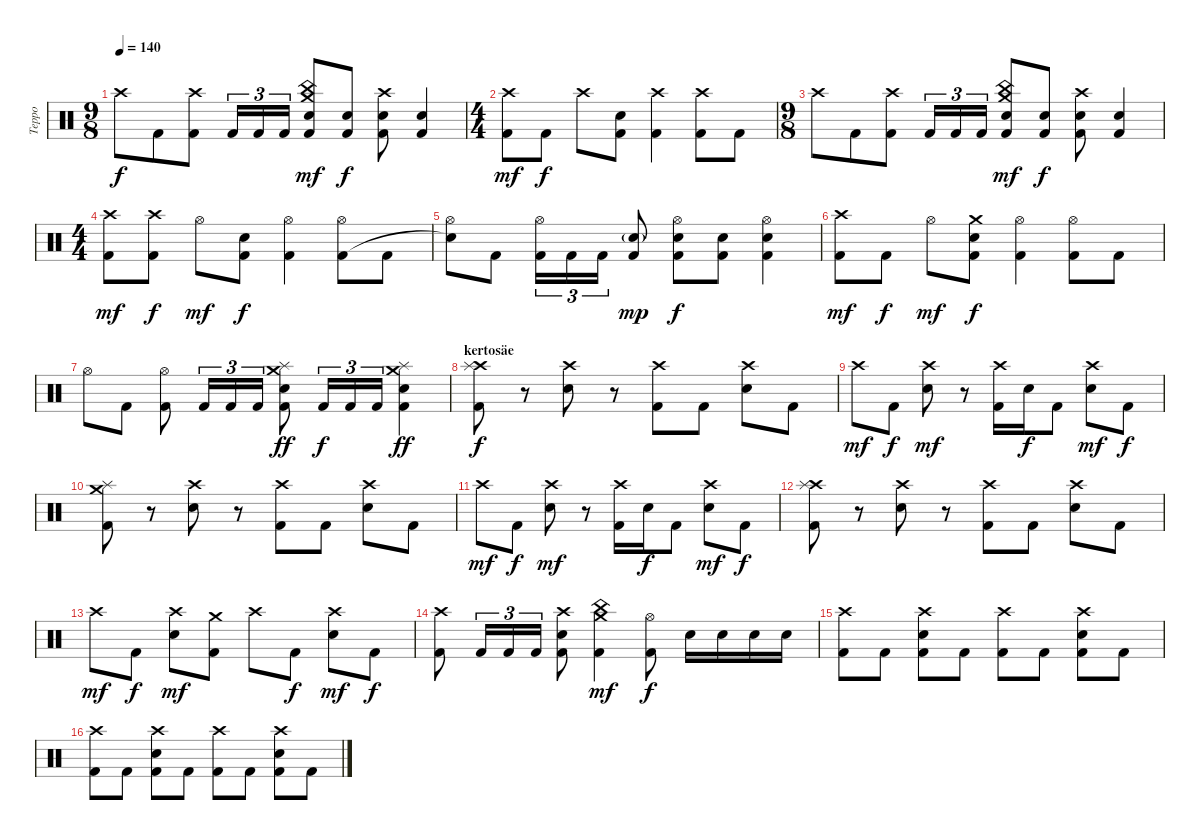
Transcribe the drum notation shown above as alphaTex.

\track ("Teppo" "Teppo") {instrument percussion}
\staff {score}
\articulation defaults
\ts (9 8)
\tempo 140
\clef neutral
\ks c "Crash high (hit)".8{dy f} "Kick (hit) 2".8
("Crash high (hit)" "Kick (hit) 2").8 "Kick (hit) 2".16{tu (3 2)} "Kick (hit) 2".16{tu (3 2)} "Kick (hit) 2".16{tu (3 2)} ("Crash medium (hit)" "China (hit)" "Electric Snare (hit)" "Kick (hit) 2").8{dy mf} ("Electric Snare (hit)" "Kick (hit) 2").8{dy f} ("Crash high (hit)" "Electric Snare (hit)" "Kick (hit) 2").8 ("Electric Snare (hit)" "Kick (hit) 2").4 |
\ts (4 4)
("Crash high (hit)" "Kick (hit) 2").8{dy mf} "Kick (hit) 2".8{dy f} "Crash high (hit)".8 ("Electric Snare (hit)" "Kick (hit) 2").8 ("Crash high (hit)" "Kick (hit) 2").4 ("Crash high (hit)" "Kick (hit) 2").8 "Kick (hit) 2".8 |
\ts (9 8)
"Crash high (hit)".8 "Kick (hit) 2".8 ("Crash high (hit)" "Kick (hit) 2").8 "Kick (hit) 2".16{tu (3 2)} "Kick (hit) 2".16{tu (3 2)} "Kick (hit) 2".16{tu (3 2)} ("Crash medium (hit)" "China (hit)" "Electric Snare (hit)" "Kick (hit) 2").8{dy mf} ("Electric Snare (hit)" "Kick (hit) 2").8{dy f} ("Crash high (hit)" "Electric Snare (hit)" "Kick (hit) 2").8 ("Electric Snare (hit)" "Kick (hit) 2").4 |
\ts (4 4)
("Crash high (hit)" "Kick (hit) 2").8{dy mf} ("Crash high (hit)" "Kick (hit) 2").8{dy f} "Hi-Hat (open)".8{dy mf} ("Electric Snare (hit)" "Kick (hit) 2").8{dy f} ("Hi-Hat (open)" "Kick (hit) 2").4 ("Hi-Hat (open)" "Kick (hit) 2").8 "Kick (hit) 2".8 |
("Hi-Hat (open)" "Snare (hit)"{t}).8 "Kick (hit) 2".8 ("Hi-Hat (open)" "Kick (hit) 2").16{tu (3 2)} "Kick (hit) 2".16{tu (3 2)} "Kick (hit) 2".16{tu (3 2)} ("Electric Snare (hit)"{g} "Kick (hit) 2").8{dy mp} ("Hi-Hat (open)" "Electric Snare (hit)" "Kick (hit) 2").8{dy f} ("Electric Snare (hit)" "Kick (hit) 2").8 ("Hi-Hat (open)" "Electric Snare (hit)" "Kick (hit) 2").4 |
("Crash high (hit)" "Kick (hit) 2").8{dy mf} "Kick (hit) 2".8{dy f} "Hi-Hat (open)".8{dy mf} ("Crash medium (hit)" "Electric Snare (hit)" "Kick (hit) 2").8{dy f} ("Hi-Hat (open)" "Kick (hit) 2").4 ("Hi-Hat (open)" "Kick (hit) 2").8 "Kick (hit) 2".8 |
"Hi-Hat (open)".8 "Kick (hit) 2".8 ("Hi-Hat (open)" "Kick (hit) 2").8 "Kick (hit) 2".16{tu (3 2)} "Kick (hit) 2".16{tu (3 2)} "Kick (hit) 2".16{tu (3 2)} ("Crash medium (hit)" "Splash (hit)" "Electric Snare (hit)" "Kick (hit) 2").8{dy ff} "Kick (hit) 2".16{tu (3 2) dy f} "Kick (hit) 2".16{tu (3 2)} "Kick (hit) 2".16{tu (3 2)} ("Crash medium (hit)" "Splash (hit)" "Electric Snare (hit)" "Kick (hit) 2").4{dy ff} |
\section ("" "kertosäe")
("Crash high (hit)" "Splash (hit)" "Kick (hit) 2").8{dy f} r.8 ("Crash high (hit)" "Electric Snare (hit)").8 r.8 ("Crash high (hit)" "Kick (hit) 2").8 "Kick (hit) 2".8 ("Crash high (hit)" "Electric Snare (hit)").8 "Kick (hit) 2".8 |
"Crash high (hit)".8{dy mf} "Kick (hit) 2".8{dy f} ("Crash high (hit)" "Electric Snare (hit)").8{dy mf} r.8 ("Crash high (hit)" "Kick (hit) 2").16 "Electric Snare (hit)".16{dy f} "Kick (hit) 2".8 ("Crash high (hit)" "Electric Snare (hit)").8{dy mf} "Kick (hit) 2".8{dy f} |
("Crash medium (hit)" "Splash (hit)" "Kick (hit) 2").8 r.8 ("Crash high (hit)" "Electric Snare (hit)").8 r.8 ("Crash high (hit)" "Kick (hit) 2").8 "Kick (hit) 2".8 ("Crash high (hit)" "Electric Snare (hit)").8 "Kick (hit) 2".8 |
"Crash high (hit)".8{dy mf} "Kick (hit) 2".8{dy f} ("Crash high (hit)" "Electric Snare (hit)").8{dy mf} r.8 ("Crash high (hit)" "Kick (hit) 2").16 "Electric Snare (hit)".16{dy f} "Kick (hit) 2".8 ("Crash high (hit)" "Electric Snare (hit)").8{dy mf} "Kick (hit) 2".8{dy f} |
("Crash high (hit)" "Splash (hit)" "Kick (hit) 2").8 r.8 ("Crash high (hit)" "Electric Snare (hit)").8 r.8 ("Crash high (hit)" "Kick (hit) 2").8 "Kick (hit) 2".8 ("Crash high (hit)" "Electric Snare (hit)").8 "Kick (hit) 2".8 |
"Crash high (hit)".8{dy mf} "Kick (hit) 2".8{dy f} ("Crash high (hit)" "Electric Snare (hit)").8{dy mf} ("Crash medium (hit)" "Kick (hit) 2").8 "Crash high (hit)".8 "Kick (hit) 2".8{dy f} ("Crash high (hit)" "Electric Snare (hit)").8{dy mf} "Kick (hit) 2".8{dy f} |
("Crash high (hit)" "Kick (hit) 2").8 "Kick (hit) 2".16{tu (3 2)} "Kick (hit) 2".16{tu (3 2)} "Kick (hit) 2".16{tu (3 2)} ("Crash high (hit)" "Electric Snare (hit)" "Kick (hit) 2").8 ("China (hit)" "Crash medium (hit)" "Kick (hit) 2").4{dy mf} ("Hi-Hat (open)" "Kick (hit) 2").8{dy f} "Electric Snare (hit)".16 "Electric Snare (hit)".16 "Electric Snare (hit)".16 "Electric Snare (hit)".16 |
("Crash high (hit)" "Kick (hit) 2").8 "Kick (hit) 2".8 ("Crash high (hit)" "Electric Snare (hit)" "Kick (hit) 2").8 "Kick (hit) 2".8 ("Crash high (hit)" "Kick (hit) 2").8 "Kick (hit) 2".8 ("Crash high (hit)" "Electric Snare (hit)" "Kick (hit) 2").8 "Kick (hit) 2".8 |
("Crash high (hit)" "Kick (hit) 2").8 "Kick (hit) 2".8 ("Crash high (hit)" "Electric Snare (hit)" "Kick (hit) 2").8 "Kick (hit) 2".8 ("Crash high (hit)" "Kick (hit) 2").8 "Kick (hit) 2".8 ("Crash high (hit)" "Electric Snare (hit)" "Kick (hit) 2").8 "Kick (hit) 2".8
